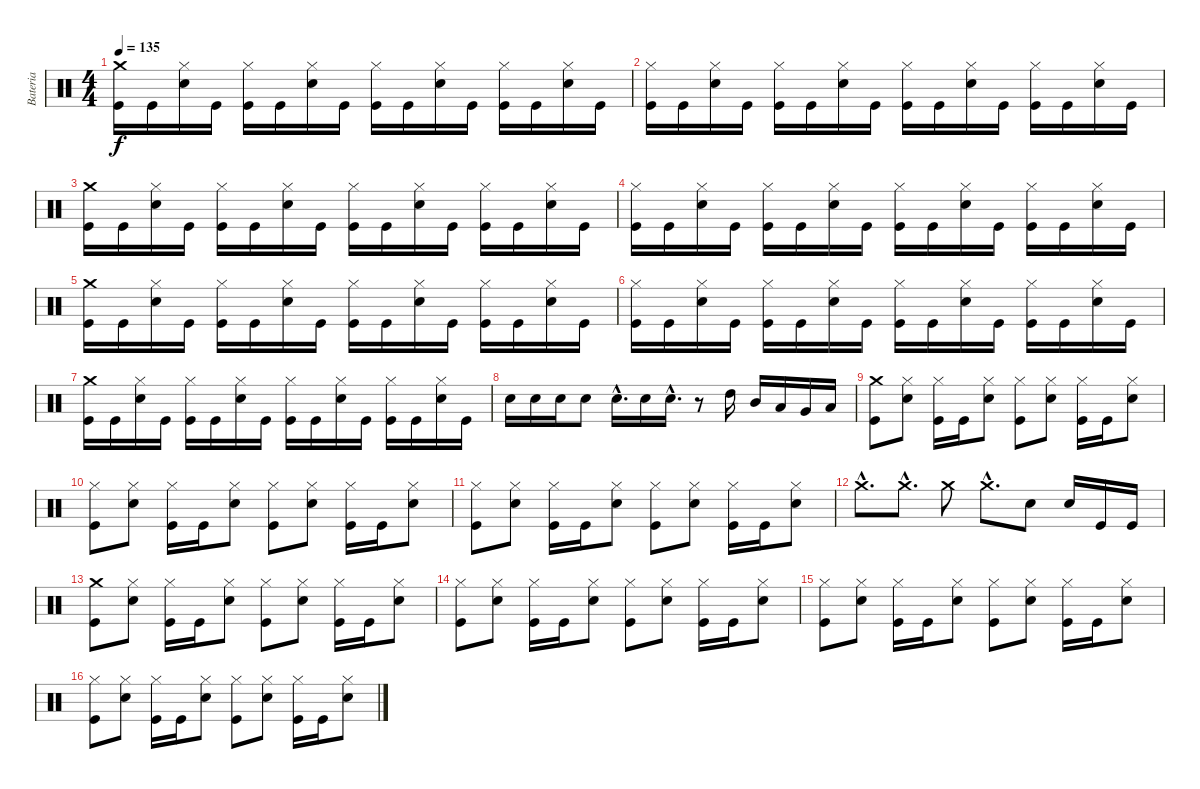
\track ("Bateria" "Bateria") {instrument percussion}
\staff {score}
\articulation defaults
\ts (4 4)
\tempo 135
\clef neutral
\ks c
("Kick (hit)" "Crash medium (hit)").16{dy f} "Kick (hit)".16 ("Snare (hit) 2" "Hi-Hat (closed)").16 "Kick (hit)".16 ("Kick (hit)" "Hi-Hat (closed)").16 "Kick (hit)".16 ("Snare (hit) 2" "Hi-Hat (closed)").16 "Kick (hit)".16 ("Kick (hit)" "Hi-Hat (closed)").16 "Kick (hit)".16 ("Snare (hit) 2" "Hi-Hat (closed)").16 "Kick (hit)".16 ("Kick (hit)" "Hi-Hat (closed)").16 "Kick (hit)".16 ("Snare (hit) 2" "Hi-Hat (closed)").16 "Kick (hit)".16 |
("Kick (hit)" "Hi-Hat (closed)").16 "Kick (hit)".16 ("Snare (hit) 2" "Hi-Hat (closed)").16 "Kick (hit)".16 ("Kick (hit)" "Hi-Hat (closed)").16 "Kick (hit)".16 ("Snare (hit) 2" "Hi-Hat (closed)").16 "Kick (hit)".16 ("Kick (hit)" "Hi-Hat (closed)").16 "Kick (hit)".16 ("Snare (hit) 2" "Hi-Hat (closed)").16 "Kick (hit)".16 ("Kick (hit)" "Hi-Hat (closed)").16 "Kick (hit)".16 ("Snare (hit) 2" "Hi-Hat (closed)").16 "Kick (hit)".16 |
("Kick (hit)" "Crash medium (hit)").16 "Kick (hit)".16 ("Snare (hit) 2" "Hi-Hat (closed)").16 "Kick (hit)".16 ("Kick (hit)" "Hi-Hat (closed)").16 "Kick (hit)".16 ("Snare (hit) 2" "Hi-Hat (closed)").16 "Kick (hit)".16 ("Kick (hit)" "Hi-Hat (closed)").16 "Kick (hit)".16 ("Snare (hit) 2" "Hi-Hat (closed)").16 "Kick (hit)".16 ("Kick (hit)" "Hi-Hat (closed)").16 "Kick (hit)".16 ("Snare (hit) 2" "Hi-Hat (closed)").16 "Kick (hit)".16 |
("Kick (hit)" "Hi-Hat (closed)").16 "Kick (hit)".16 ("Snare (hit) 2" "Hi-Hat (closed)").16 "Kick (hit)".16 ("Kick (hit)" "Hi-Hat (closed)").16 "Kick (hit)".16 ("Snare (hit) 2" "Hi-Hat (closed)").16 "Kick (hit)".16 ("Kick (hit)" "Hi-Hat (closed)").16 "Kick (hit)".16 ("Snare (hit) 2" "Hi-Hat (closed)").16 "Kick (hit)".16 ("Kick (hit)" "Hi-Hat (closed)").16 "Kick (hit)".16 ("Snare (hit) 2" "Hi-Hat (closed)").16 "Kick (hit)".16 |
("Kick (hit)" "Crash medium (hit)").16 "Kick (hit)".16 ("Snare (hit) 2" "Hi-Hat (closed)").16 "Kick (hit)".16 ("Kick (hit)" "Hi-Hat (closed)").16 "Kick (hit)".16 ("Snare (hit) 2" "Hi-Hat (closed)").16 "Kick (hit)".16 ("Kick (hit)" "Hi-Hat (closed)").16 "Kick (hit)".16 ("Snare (hit) 2" "Hi-Hat (closed)").16 "Kick (hit)".16 ("Kick (hit)" "Hi-Hat (closed)").16 "Kick (hit)".16 ("Snare (hit) 2" "Hi-Hat (closed)").16 "Kick (hit)".16 |
("Kick (hit)" "Hi-Hat (closed)").16 "Kick (hit)".16 ("Snare (hit) 2" "Hi-Hat (closed)").16 "Kick (hit)".16 ("Kick (hit)" "Hi-Hat (closed)").16 "Kick (hit)".16 ("Snare (hit) 2" "Hi-Hat (closed)").16 "Kick (hit)".16 ("Kick (hit)" "Hi-Hat (closed)").16 "Kick (hit)".16 ("Snare (hit) 2" "Hi-Hat (closed)").16 "Kick (hit)".16 ("Kick (hit)" "Hi-Hat (closed)").16 "Kick (hit)".16 ("Snare (hit) 2" "Hi-Hat (closed)").16 "Kick (hit)".16 |
("Kick (hit)" "Crash medium (hit)").16 "Kick (hit)".16 ("Snare (hit) 2" "Hi-Hat (closed)").16 "Kick (hit)".16 ("Kick (hit)" "Hi-Hat (closed)").16 "Kick (hit)".16 ("Snare (hit) 2" "Hi-Hat (closed)").16 "Kick (hit)".16 ("Kick (hit)" "Hi-Hat (closed)").16 "Kick (hit)".16 ("Snare (hit) 2" "Hi-Hat (closed)").16 "Kick (hit)".16 ("Kick (hit)" "Hi-Hat (closed)").16 "Kick (hit)".16 ("Snare (hit) 2" "Hi-Hat (closed)").16 "Kick (hit)".16 |
"Snare (hit) 2".16 "Snare (hit) 2".16 "Snare (hit) 2".16 "Snare (hit) 2".8 "Snare (hit) 2"{hac}.16{d} "Snare (hit) 2".16 "Snare (hit) 2"{hac}.16{d} r.8 "High Tom (hit)".16 "Mid Tom (hit)".16 "Low Tom (hit)".16 "Very Low Tom (hit)".16 "Low Floor Tom (hit)".16 |
("Kick (hit)" "Crash medium (hit)").8 ("Snare (hit) 2" "Hi-Hat (closed)").8 ("Kick (hit)" "Hi-Hat (closed)").16 "Kick (hit)".16 ("Snare (hit) 2" "Hi-Hat (closed)").8 ("Kick (hit)" "Hi-Hat (closed)").8 ("Snare (hit) 2" "Hi-Hat (closed)").8 ("Kick (hit)" "Hi-Hat (closed)").16 "Kick (hit)".16 ("Snare (hit) 2" "Hi-Hat (closed)").8 |
("Kick (hit)" "Hi-Hat (closed)").8 ("Snare (hit) 2" "Hi-Hat (closed)").8 ("Kick (hit)" "Hi-Hat (closed)").16 "Kick (hit)".16 ("Snare (hit) 2" "Hi-Hat (closed)").8 ("Kick (hit)" "Hi-Hat (closed)").8 ("Snare (hit) 2" "Hi-Hat (closed)").8 ("Kick (hit)" "Hi-Hat (closed)").16 "Kick (hit)".16 ("Snare (hit) 2" "Hi-Hat (closed)").8 |
("Kick (hit)" "Hi-Hat (closed)").8 ("Snare (hit) 2" "Hi-Hat (closed)").8 ("Kick (hit)" "Hi-Hat (closed)").16 "Kick (hit)".16 ("Snare (hit) 2" "Hi-Hat (closed)").8 ("Kick (hit)" "Hi-Hat (closed)").8 ("Snare (hit) 2" "Hi-Hat (closed)").8 ("Kick (hit)" "Hi-Hat (closed)").16 "Kick (hit)".16 ("Snare (hit) 2" "Hi-Hat (closed)").8 |
"Crash medium (hit)"{hac}.8{d} "Crash medium (hit)"{hac}.8{d} "Crash medium (hit)".8 "Crash medium (hit)"{hac}.8{d} "Snare (hit) 2".8 "Snare (hit) 2".16 "Kick (hit)".16 "Kick (hit)".16 |
("Kick (hit)" "Crash medium (hit)").8 ("Snare (hit) 2" "Hi-Hat (closed)").8 ("Kick (hit)" "Hi-Hat (closed)").16 "Kick (hit)".16 ("Snare (hit) 2" "Hi-Hat (closed)").8 ("Kick (hit)" "Hi-Hat (closed)").8 ("Snare (hit) 2" "Hi-Hat (closed)").8 ("Kick (hit)" "Hi-Hat (closed)").16 "Kick (hit)".16 ("Snare (hit) 2" "Hi-Hat (closed)").8 |
("Kick (hit)" "Hi-Hat (closed)").8 ("Snare (hit) 2" "Hi-Hat (closed)").8 ("Kick (hit)" "Hi-Hat (closed)").16 "Kick (hit)".16 ("Snare (hit) 2" "Hi-Hat (closed)").8 ("Kick (hit)" "Hi-Hat (closed)").8 ("Snare (hit) 2" "Hi-Hat (closed)").8 ("Kick (hit)" "Hi-Hat (closed)").16 "Kick (hit)".16 ("Snare (hit) 2" "Hi-Hat (closed)").8 |
("Kick (hit)" "Hi-Hat (closed)").8 ("Snare (hit) 2" "Hi-Hat (closed)").8 ("Kick (hit)" "Hi-Hat (closed)").16 "Kick (hit)".16 ("Snare (hit) 2" "Hi-Hat (closed)").8 ("Kick (hit)" "Hi-Hat (closed)").8 ("Snare (hit) 2" "Hi-Hat (closed)").8 ("Kick (hit)" "Hi-Hat (closed)").16 "Kick (hit)".16 ("Snare (hit) 2" "Hi-Hat (closed)").8 |
("Kick (hit)" "Hi-Hat (closed)").8 ("Snare (hit) 2" "Hi-Hat (closed)").8 ("Kick (hit)" "Hi-Hat (closed)").16 "Kick (hit)".16 ("Snare (hit) 2" "Hi-Hat (closed)").8 ("Kick (hit)" "Hi-Hat (closed)").8 ("Snare (hit) 2" "Hi-Hat (closed)").8 ("Kick (hit)" "Hi-Hat (closed)").16 "Kick (hit)".16 ("Snare (hit) 2" "Hi-Hat (closed)").8
